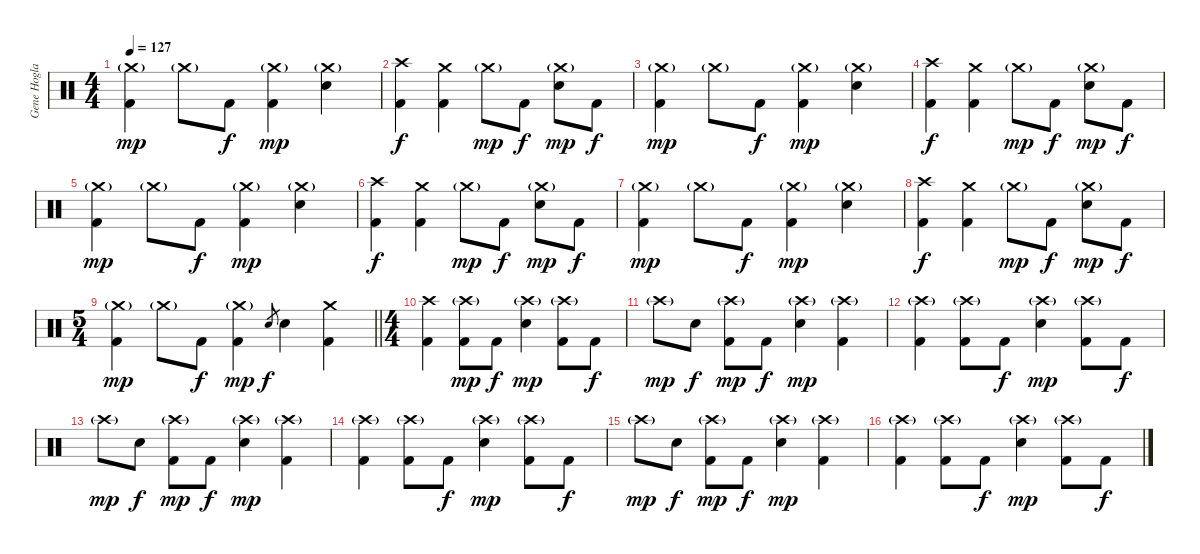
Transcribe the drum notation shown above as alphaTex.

\track ("Gene Hoglan" "Gene Hogla") {instrument percussion}
\staff {score}
\articulation defaults
\ts (4 4)
\tempo 127
\clef neutral
\ks c
("Crash medium (hit)"{g} "Kick (hit) 2").4{dy mp} "Crash medium (hit)"{g}.8 "Kick (hit) 2".8{dy f} ("Crash medium (hit)"{g} "Kick (hit) 2").4{dy mp} ("Crash medium (hit)"{g} "Electric Snare (hit)").4 |
("Crash high (hit)" "Kick (hit) 2").4{dy f} ("Crash medium (hit)" "Kick (hit) 2").4 "Crash medium (hit)"{g}.8{dy mp} "Kick (hit) 2".8{dy f} ("Crash medium (hit)"{g} "Electric Snare (hit)").8{dy mp} "Kick (hit) 2".8{dy f} |
("Crash medium (hit)"{g} "Kick (hit) 2").4{dy mp} "Crash medium (hit)"{g}.8 "Kick (hit) 2".8{dy f} ("Crash medium (hit)"{g} "Kick (hit) 2").4{dy mp} ("Crash medium (hit)"{g} "Electric Snare (hit)").4 |
("Crash high (hit)" "Kick (hit) 2").4{dy f} ("Crash medium (hit)" "Kick (hit) 2").4 "Crash medium (hit)"{g}.8{dy mp} "Kick (hit) 2".8{dy f} ("Crash medium (hit)"{g} "Electric Snare (hit)").8{dy mp} "Kick (hit) 2".8{dy f} |
("Crash medium (hit)"{g} "Kick (hit) 2").4{dy mp} "Crash medium (hit)"{g}.8 "Kick (hit) 2".8{dy f} ("Crash medium (hit)"{g} "Kick (hit) 2").4{dy mp} ("Crash medium (hit)"{g} "Electric Snare (hit)").4 |
("Crash high (hit)" "Kick (hit) 2").4{dy f} ("Crash medium (hit)" "Kick (hit) 2").4 "Crash medium (hit)"{g}.8{dy mp} "Kick (hit) 2".8{dy f} ("Crash medium (hit)"{g} "Electric Snare (hit)").8{dy mp} "Kick (hit) 2".8{dy f} |
("Crash medium (hit)"{g} "Kick (hit) 2").4{dy mp} "Crash medium (hit)"{g}.8 "Kick (hit) 2".8{dy f} ("Crash medium (hit)"{g} "Kick (hit) 2").4{dy mp} ("Crash medium (hit)"{g} "Electric Snare (hit)").4 |
("Crash high (hit)" "Kick (hit) 2").4{dy f} ("Crash medium (hit)" "Kick (hit) 2").4 "Crash medium (hit)"{g}.8{dy mp} "Kick (hit) 2".8{dy f} ("Crash medium (hit)"{g} "Electric Snare (hit)").8{dy mp} "Kick (hit) 2".8{dy f} |
\ts (5 4)
\barLineRight lightlight
("Crash medium (hit)"{g} "Kick (hit) 2").4{dy mp} "Crash medium (hit)"{g}.8 "Kick (hit) 2".8{dy f} ("Crash medium (hit)"{g} "Kick (hit) 2").4{dy mp} "Electric Snare (hit)".8{gr dy f} "Electric Snare (hit)".4 ("Crash medium (hit)" "Kick (hit) 2").4 |
\ts (4 4)
("Crash high (hit)" "Kick (hit) 2").4 ("Crash high (hit)"{g} "Kick (hit) 2").8{dy mp} "Kick (hit) 2".8{dy f} ("Crash high (hit)"{g} "Electric Snare (hit)").4{dy mp} ("Crash high (hit)"{g} "Kick (hit) 2").8 "Kick (hit) 2".8{dy f} |
"Crash high (hit)"{g}.8{dy mp} "Electric Snare (hit)".8{dy f} ("Crash high (hit)"{g} "Kick (hit) 2").8{dy mp} "Kick (hit) 2".8{dy f} ("Crash high (hit)"{g} "Electric Snare (hit)").4{dy mp} ("Crash high (hit)"{g} "Kick (hit) 2").4 |
("Crash high (hit)"{g} "Kick (hit) 2").4 ("Crash high (hit)"{g} "Kick (hit) 2").8 "Kick (hit) 2".8{dy f} ("Crash high (hit)"{g} "Electric Snare (hit)").4{dy mp} ("Crash high (hit)"{g} "Kick (hit) 2").8 "Kick (hit) 2".8{dy f} |
"Crash high (hit)"{g}.8{dy mp} "Electric Snare (hit)".8{dy f} ("Crash high (hit)"{g} "Kick (hit) 2").8{dy mp} "Kick (hit) 2".8{dy f} ("Crash high (hit)"{g} "Electric Snare (hit)").4{dy mp} ("Crash high (hit)"{g} "Kick (hit) 2").4 |
("Crash high (hit)"{g} "Kick (hit) 2").4 ("Crash high (hit)"{g} "Kick (hit) 2").8 "Kick (hit) 2".8{dy f} ("Crash high (hit)"{g} "Electric Snare (hit)").4{dy mp} ("Crash high (hit)"{g} "Kick (hit) 2").8 "Kick (hit) 2".8{dy f} |
"Crash high (hit)"{g}.8{dy mp} "Electric Snare (hit)".8{dy f} ("Crash high (hit)"{g} "Kick (hit) 2").8{dy mp} "Kick (hit) 2".8{dy f} ("Crash high (hit)"{g} "Electric Snare (hit)").4{dy mp} ("Crash high (hit)"{g} "Kick (hit) 2").4 |
("Crash high (hit)"{g} "Kick (hit) 2").4 ("Crash high (hit)"{g} "Kick (hit) 2").8 "Kick (hit) 2".8{dy f} ("Crash high (hit)"{g} "Electric Snare (hit)").4{dy mp} ("Crash high (hit)"{g} "Kick (hit) 2").8 "Kick (hit) 2".8{dy f}
